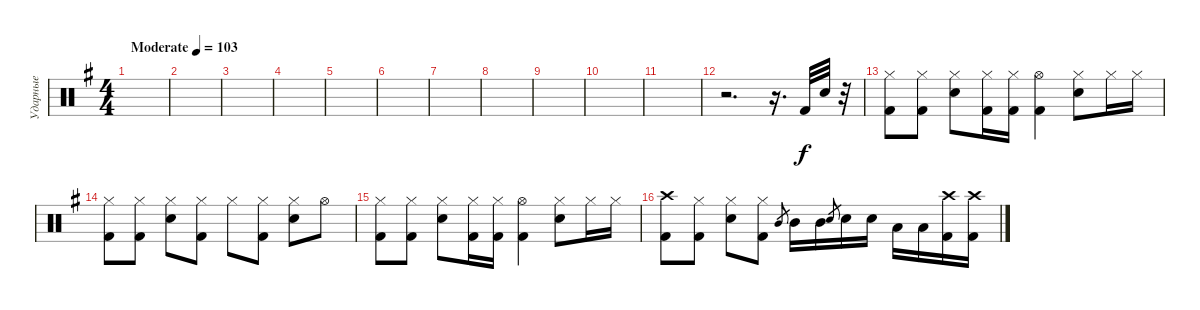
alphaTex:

\track ("Ударные" "Ударные") {instrument percussion}
\staff {score}
\articulation defaults
\ts (4 4)
\tempo (103 "Moderate")
\clef neutral
\ks eminor
|
|
|
|
|
|
|
|
|
|
|
r.2{d} r.16{d} "Kick (hit) 2".32 "Snare (hit) 2".32 r.32 |
("Hi-Hat (closed)" "Kick (hit) 2").8 ("Hi-Hat (closed)" "Kick (hit) 2").8 ("Hi-Hat (closed)" "Snare (hit) 2").8 ("Hi-Hat (closed)" "Kick (hit) 2").16 ("Hi-Hat (closed)" "Kick (hit) 2").16 ("Hi-Hat (open)" "Kick (hit) 2").4 ("Hi-Hat (closed)" "Snare (hit) 2").8 "Hi-Hat (closed)".16 "Hi-Hat (closed)".16 |
("Hi-Hat (closed)" "Kick (hit) 2").8 ("Hi-Hat (closed)" "Kick (hit) 2").8 ("Hi-Hat (closed)" "Snare (hit) 2").8 ("Hi-Hat (closed)" "Kick (hit) 2").8 "Hi-Hat (closed)".8 ("Hi-Hat (closed)" "Kick (hit) 2").8 ("Hi-Hat (closed)" "Snare (hit) 2").8 "Hi-Hat (open)".8 |
("Hi-Hat (closed)" "Kick (hit) 2").8 ("Hi-Hat (closed)" "Kick (hit) 2").8 ("Hi-Hat (closed)" "Snare (hit) 2").8 ("Hi-Hat (closed)" "Kick (hit) 2").16 ("Hi-Hat (closed)" "Kick (hit) 2").16 ("Hi-Hat (open)" "Kick (hit) 2").4 ("Hi-Hat (closed)" "Snare (hit) 2").8 "Hi-Hat (closed)".16 "Hi-Hat (closed)".16 |
("Crash high (hit)" "Kick (hit) 2").8 ("Hi-Hat (closed)" "Kick (hit) 2").8 ("Hi-Hat (closed)" "Snare (hit) 2").8 ("Hi-Hat (closed)" "Kick (hit) 2").8 "Mid Tom (hit)".8{gr} "Mid Tom (hit)".16 "Mid Tom (hit)".16 "Snare (hit) 2".8{gr} "Snare (hit) 2".16 "Snare (hit) 2".16 "Low Tom (hit)".16 "Low Tom (hit)".16 ("Crash high (hit)" "Kick (hit) 2").16 ("Crash high (hit)" "Kick (hit) 2").16
